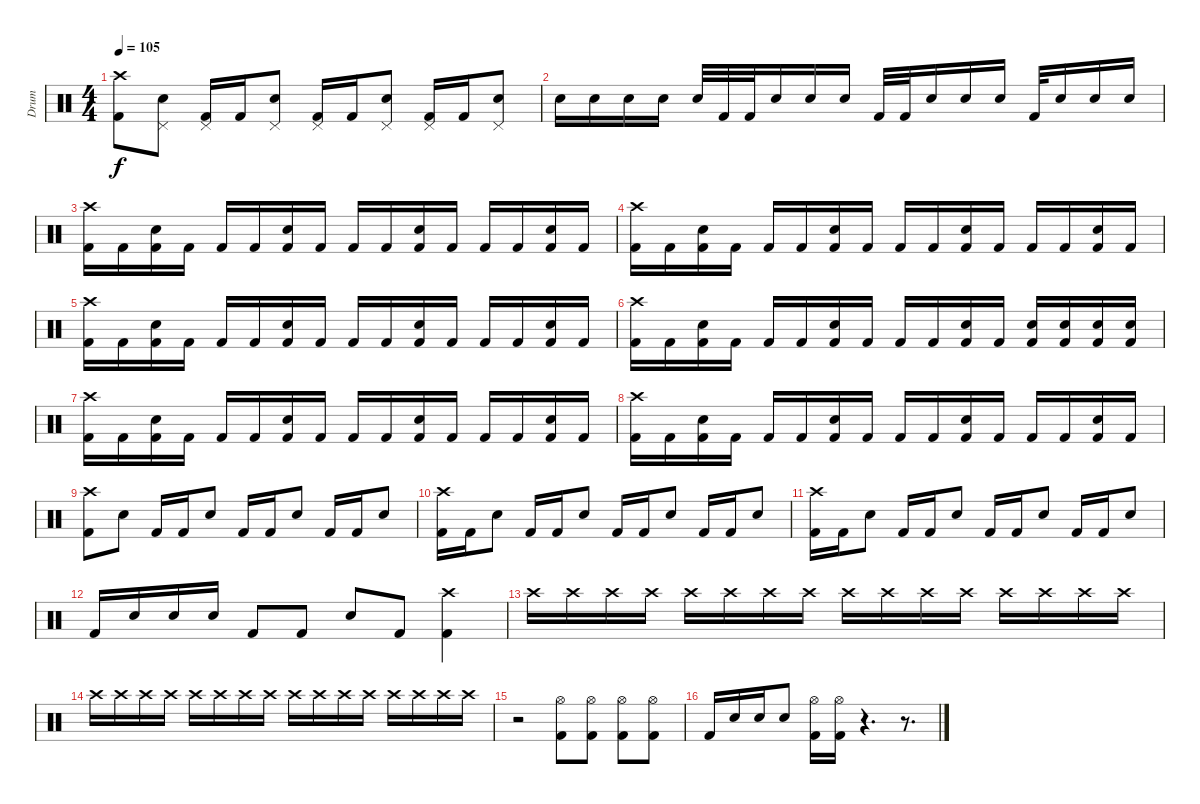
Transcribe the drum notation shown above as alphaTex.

\track ("Drum" "Drum") {instrument percussion}
\staff {score}
\articulation defaults
\ts (4 4)
\tempo 105
\clef neutral
\ks c
("Crash high (hit)" "Kick (hit) 2").8{dy f} ("Pedal Hi-Hat (hit)" "Snare (hit) 2").8 ("Pedal Hi-Hat (hit)" "Kick (hit) 2").16 "Kick (hit) 2".16 ("Pedal Hi-Hat (hit)" "Snare (hit) 2").8 ("Pedal Hi-Hat (hit)" "Kick (hit) 2").16 "Kick (hit) 2".16 ("Pedal Hi-Hat (hit)" "Snare (hit) 2").8 ("Pedal Hi-Hat (hit)" "Kick (hit) 2").16 "Kick (hit) 2".16 ("Pedal Hi-Hat (hit)" "Snare (hit) 2").8 |
"Snare (hit) 2".16 "Snare (hit) 2".16 "Snare (hit) 2".16 "Snare (hit) 2".16 "Snare (hit) 2".32 "Kick (hit) 2".32 "Kick (hit) 2".32 "Snare (hit) 2".16 "Snare (hit) 2".16 "Snare (hit) 2".16 "Kick (hit) 2".32 "Kick (hit) 2".32 "Snare (hit) 2".16 "Snare (hit) 2".16 "Snare (hit) 2".16 "Kick (hit) 2".32 "Snare (hit) 2".16 "Snare (hit) 2".16 "Snare (hit) 2".16 |
("Crash high (hit)" "Kick (hit) 2").16 "Kick (hit) 2".16 ("Snare (hit) 2" "Kick (hit) 2").16 "Kick (hit) 2".16 "Kick (hit) 2".16 "Kick (hit) 2".16 ("Snare (hit) 2" "Kick (hit) 2").16 "Kick (hit) 2".16 "Kick (hit) 2".16 "Kick (hit) 2".16 ("Snare (hit) 2" "Kick (hit) 2").16 "Kick (hit) 2".16 "Kick (hit) 2".16 "Kick (hit) 2".16 ("Snare (hit) 2" "Kick (hit) 2").16 "Kick (hit) 2".16 |
("Crash high (hit)" "Kick (hit) 2").16 "Kick (hit) 2".16 ("Snare (hit) 2" "Kick (hit) 2").16 "Kick (hit) 2".16 "Kick (hit) 2".16 "Kick (hit) 2".16 ("Snare (hit) 2" "Kick (hit) 2").16 "Kick (hit) 2".16 "Kick (hit) 2".16 "Kick (hit) 2".16 ("Snare (hit) 2" "Kick (hit) 2").16 "Kick (hit) 2".16 "Kick (hit) 2".16 "Kick (hit) 2".16 ("Snare (hit) 2" "Kick (hit) 2").16 "Kick (hit) 2".16 |
("Crash high (hit)" "Kick (hit) 2").16 "Kick (hit) 2".16 ("Snare (hit) 2" "Kick (hit) 2").16 "Kick (hit) 2".16 "Kick (hit) 2".16 "Kick (hit) 2".16 ("Snare (hit) 2" "Kick (hit) 2").16 "Kick (hit) 2".16 "Kick (hit) 2".16 "Kick (hit) 2".16 ("Snare (hit) 2" "Kick (hit) 2").16 "Kick (hit) 2".16 "Kick (hit) 2".16 "Kick (hit) 2".16 ("Snare (hit) 2" "Kick (hit) 2").16 "Kick (hit) 2".16 |
("Crash high (hit)" "Kick (hit) 2").16 "Kick (hit) 2".16 ("Snare (hit) 2" "Kick (hit) 2").16 "Kick (hit) 2".16 "Kick (hit) 2".16 "Kick (hit) 2".16 ("Snare (hit) 2" "Kick (hit) 2").16 "Kick (hit) 2".16 "Kick (hit) 2".16 "Kick (hit) 2".16 ("Snare (hit) 2" "Kick (hit) 2").16 "Kick (hit) 2".16 ("Snare (hit) 2" "Kick (hit) 2").16 ("Snare (hit) 2" "Kick (hit) 2").16 ("Snare (hit) 2" "Kick (hit) 2").16 ("Snare (hit) 2" "Kick (hit) 2").16 |
("Crash high (hit)" "Kick (hit) 2").16 "Kick (hit) 2".16 ("Snare (hit) 2" "Kick (hit) 2").16 "Kick (hit) 2".16 "Kick (hit) 2".16 "Kick (hit) 2".16 ("Snare (hit) 2" "Kick (hit) 2").16 "Kick (hit) 2".16 "Kick (hit) 2".16 "Kick (hit) 2".16 ("Snare (hit) 2" "Kick (hit) 2").16 "Kick (hit) 2".16 "Kick (hit) 2".16 "Kick (hit) 2".16 ("Snare (hit) 2" "Kick (hit) 2").16 "Kick (hit) 2".16 |
("Crash high (hit)" "Kick (hit) 2").16 "Kick (hit) 2".16 ("Snare (hit) 2" "Kick (hit) 2").16 "Kick (hit) 2".16 "Kick (hit) 2".16 "Kick (hit) 2".16 ("Snare (hit) 2" "Kick (hit) 2").16 "Kick (hit) 2".16 "Kick (hit) 2".16 "Kick (hit) 2".16 ("Snare (hit) 2" "Kick (hit) 2").16 "Kick (hit) 2".16 "Kick (hit) 2".16 "Kick (hit) 2".16 ("Snare (hit) 2" "Kick (hit) 2").16 "Kick (hit) 2".16 |
("Crash high (hit)" "Kick (hit) 2").8 "Snare (hit) 2".8 "Kick (hit) 2".16 "Kick (hit) 2".16 "Snare (hit) 2".8 "Kick (hit) 2".16 "Kick (hit) 2".16 "Snare (hit) 2".8 "Kick (hit) 2".16 "Kick (hit) 2".16 "Snare (hit) 2".8 |
("Crash high (hit)" "Kick (hit) 2").16 "Kick (hit) 2".16 "Snare (hit) 2".8 "Kick (hit) 2".16 "Kick (hit) 2".16 "Snare (hit) 2".8 "Kick (hit) 2".16 "Kick (hit) 2".16 "Snare (hit) 2".8 "Kick (hit) 2".16 "Kick (hit) 2".16 "Snare (hit) 2".8 |
("Crash high (hit)" "Kick (hit) 2").16 "Kick (hit) 2".16 "Snare (hit) 2".8 "Kick (hit) 2".16 "Kick (hit) 2".16 "Snare (hit) 2".8 "Kick (hit) 2".16 "Kick (hit) 2".16 "Snare (hit) 2".8 "Kick (hit) 2".16 "Kick (hit) 2".16 "Snare (hit) 2".8 |
"Kick (hit) 2".16 "Snare (hit) 2".16 "Snare (hit) 2".16 "Snare (hit) 2".16 "Kick (hit) 2".8 "Kick (hit) 2".8 "Snare (hit) 2".8 "Kick (hit) 2".8 ("Crash high (hit)" "Kick (hit) 2").4 |
"Crash high (hit)".16 "Crash high (hit)".16 "Crash high (hit)".16 "Crash high (hit)".16 "Crash high (hit)".16 "Crash high (hit)".16 "Crash high (hit)".16 "Crash high (hit)".16 "Crash high (hit)".16 "Crash high (hit)".16 "Crash high (hit)".16 "Crash high (hit)".16 "Crash high (hit)".16 "Crash high (hit)".16 "Crash high (hit)".16 "Crash high (hit)".16 |
"Crash high (hit)".16 "Crash high (hit)".16 "Crash high (hit)".16 "Crash high (hit)".16 "Crash high (hit)".16 "Crash high (hit)".16 "Crash high (hit)".16 "Crash high (hit)".16 "Crash high (hit)".16 "Crash high (hit)".16 "Crash high (hit)".16 "Crash high (hit)".16 "Crash high (hit)".16 "Crash high (hit)".16 "Crash high (hit)".16 "Crash high (hit)".16 |
r.2 ("Hi-Hat (open)" "Kick (hit) 2").8 ("Hi-Hat (open)" "Kick (hit) 2").8 ("Hi-Hat (open)" "Kick (hit) 2").8 ("Hi-Hat (open)" "Kick (hit) 2").8 |
"Kick (hit) 2".16 "Snare (hit) 2".16 "Snare (hit) 2".16 "Snare (hit) 2".8 ("Hi-Hat (open)" "Kick (hit) 2").16 ("Hi-Hat (open)" "Kick (hit) 2").16 r.4{d} r.8{d}
